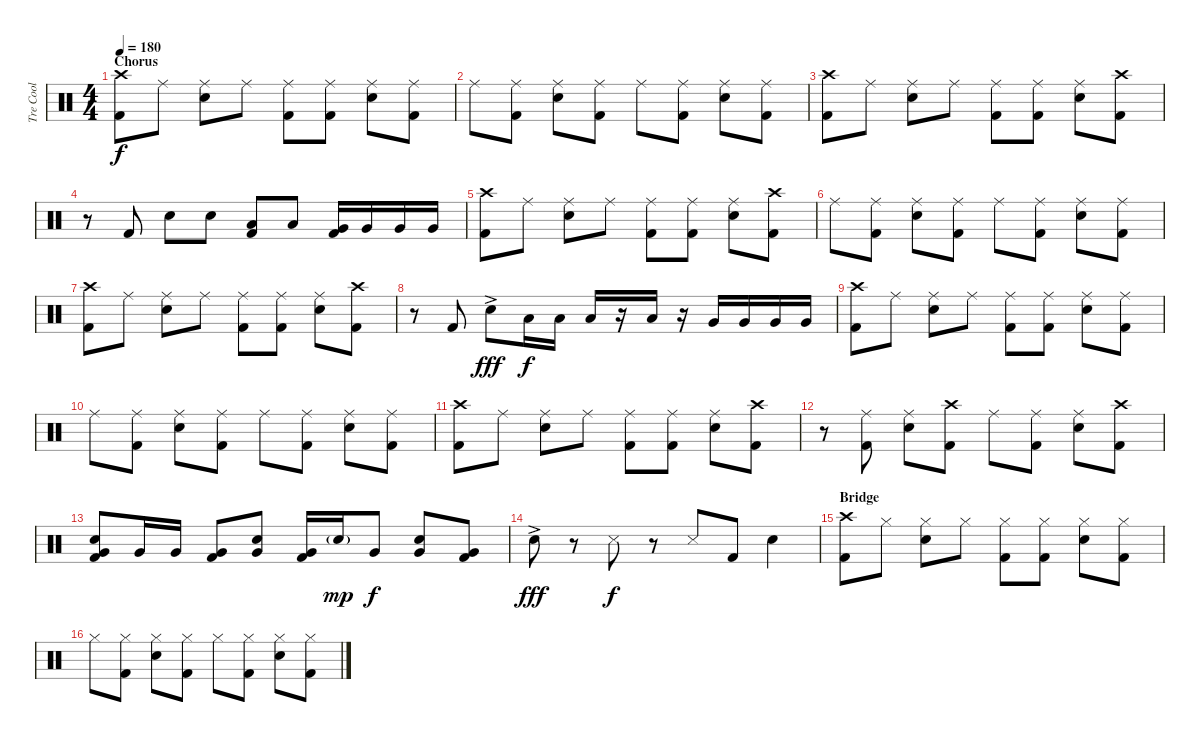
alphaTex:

\track ("Tre Cool" "Tre Cool") {instrument percussion}
\staff {score}
\articulation defaults
\ts (4 4)
\section ("" "Chorus")
\tempo 180
\clef neutral
\ks c
("Crash high (hit)" "Kick (hit) 2").8{dy f} "Ride (middle)".8 ("Ride (middle)" "Electric Snare (hit)").8 "Ride (middle)".8 ("Ride (middle)" "Kick (hit) 2").8 ("Ride (middle)" "Kick (hit) 2").8 ("Ride (middle)" "Electric Snare (hit)").8 ("Ride (middle)" "Kick (hit) 2").8 |
"Ride (middle)".8 ("Ride (middle)" "Kick (hit) 2").8 ("Ride (middle)" "Electric Snare (hit)").8 ("Ride (middle)" "Kick (hit) 2").8 "Ride (middle)".8 ("Ride (middle)" "Kick (hit) 2").8 ("Ride (middle)" "Electric Snare (hit)").8 ("Ride (middle)" "Kick (hit) 2").8 |
("Crash high (hit)" "Kick (hit) 2").8 "Ride (middle)".8 ("Ride (middle)" "Electric Snare (hit)").8 "Ride (middle)".8 ("Ride (middle)" "Kick (hit) 2").8 ("Ride (middle)" "Kick (hit) 2").8 ("Ride (middle)" "Electric Snare (hit)").8 ("Crash high (hit)" "Kick (hit) 2").8 |
r.8 "Kick (hit) 2".8 "Electric Snare (hit)".8 "Electric Snare (hit)".8 ("Low Tom (hit)" "Kick (hit) 2").8 "Low Tom (hit)".8 ("Very Low Tom (hit)" "Kick (hit) 2").16 "Very Low Tom (hit)".16 "Very Low Tom (hit)".16 "Very Low Tom (hit)".16 |
("Crash high (hit)" "Kick (hit) 2").8 "Ride (middle)".8 ("Ride (middle)" "Electric Snare (hit)").8 "Ride (middle)".8 ("Ride (middle)" "Kick (hit) 2").8 ("Ride (middle)" "Kick (hit) 2").8 ("Ride (middle)" "Electric Snare (hit)").8 ("Crash high (hit)" "Kick (hit) 2").8 |
"Ride (middle)".8 ("Ride (middle)" "Kick (hit) 2").8 ("Ride (middle)" "Electric Snare (hit)").8 ("Ride (middle)" "Kick (hit) 2").8 "Ride (middle)".8 ("Ride (middle)" "Kick (hit) 2").8 ("Ride (middle)" "Electric Snare (hit)").8 ("Ride (middle)" "Kick (hit) 2").8 |
("Crash high (hit)" "Kick (hit) 2").8 "Ride (middle)".8 ("Ride (middle)" "Electric Snare (hit)").8 "Ride (middle)".8 ("Ride (middle)" "Kick (hit) 2").8 ("Ride (middle)" "Kick (hit) 2").8 ("Ride (middle)" "Electric Snare (hit)").8 ("Crash high (hit)" "Kick (hit) 2").8 |
r.8 "Kick (hit) 2".8 "Electric Snare (hit)"{ac}.8{dy fff} "Low Tom (hit)".16{dy f} "Low Tom (hit)".16 "Low Tom (hit)".16 r.16 "Low Tom (hit)".16 r.16 "Very Low Tom (hit)".16 "Very Low Tom (hit)".16 "Very Low Tom (hit)".16 "Very Low Tom (hit)".16 |
("Crash high (hit)" "Kick (hit) 2").8 "Ride (middle)".8 ("Ride (middle)" "Electric Snare (hit)").8 "Ride (middle)".8 ("Ride (middle)" "Kick (hit) 2").8 ("Ride (middle)" "Kick (hit) 2").8 ("Ride (middle)" "Electric Snare (hit)").8 ("Ride (middle)" "Kick (hit) 2").8 |
"Ride (middle)".8 ("Ride (middle)" "Kick (hit) 2").8 ("Ride (middle)" "Electric Snare (hit)").8 ("Ride (middle)" "Kick (hit) 2").8 "Ride (middle)".8 ("Ride (middle)" "Kick (hit) 2").8 ("Ride (middle)" "Electric Snare (hit)").8 ("Ride (middle)" "Kick (hit) 2").8 |
("Crash high (hit)" "Kick (hit) 2").8 "Ride (middle)".8 ("Ride (middle)" "Electric Snare (hit)").8 "Ride (middle)".8 ("Ride (middle)" "Kick (hit) 2").8 ("Ride (middle)" "Kick (hit) 2").8 ("Ride (middle)" "Electric Snare (hit)").8 ("Crash high (hit)" "Kick (hit) 2").8 |
r.8 ("Ride (middle)" "Kick (hit) 2").8 ("Ride (middle)" "Electric Snare (hit)").8 ("Crash high (hit)" "Kick (hit) 2").8 "Ride (middle)".8 ("Ride (middle)" "Kick (hit) 2").8 ("Ride (middle)" "Electric Snare (hit)").8 ("Crash high (hit)" "Kick (hit) 2").8 |
("Electric Snare (hit)" "Very Low Tom (hit)" "Kick (hit) 2").8 "Very Low Tom (hit)".16 "Very Low Tom (hit)".16 ("Very Low Tom (hit)" "Kick (hit) 2").8 ("Electric Snare (hit)" "Very Low Tom (hit)").8 ("Very Low Tom (hit)" "Kick (hit) 2").16 "Electric Snare (hit)"{g}.16{dy mp} "Very Low Tom (hit)".8{dy f} ("Electric Snare (hit)" "Very Low Tom (hit)").8 ("Very Low Tom (hit)" "Kick (hit) 2").8 |
"Electric Snare (hit)"{ac}.8{dy fff} r.8 "Snare (side stick) 3".8{dy f} r.8 "Snare (side stick) 3".8 "Kick (hit) 2".8 "Electric Snare (hit)".4 |
\section ("" "Bridge")
("Crash high (hit)" "Kick (hit) 2").8 "Hi-Hat (closed)".8 ("Hi-Hat (closed)" "Electric Snare (hit)").8 "Hi-Hat (closed)".8 ("Hi-Hat (closed)" "Kick (hit) 2").8 ("Hi-Hat (closed)" "Kick (hit) 2").8 ("Hi-Hat (closed)" "Electric Snare (hit)").8 ("Hi-Hat (closed)" "Kick (hit) 2").8 |
"Hi-Hat (closed)".8 ("Hi-Hat (closed)" "Kick (hit) 2").8 ("Hi-Hat (closed)" "Electric Snare (hit)").8 ("Hi-Hat (closed)" "Kick (hit) 2").8 "Hi-Hat (closed)".8 ("Hi-Hat (closed)" "Kick (hit) 2").8 ("Hi-Hat (closed)" "Electric Snare (hit)").8 ("Hi-Hat (closed)" "Kick (hit) 2").8
